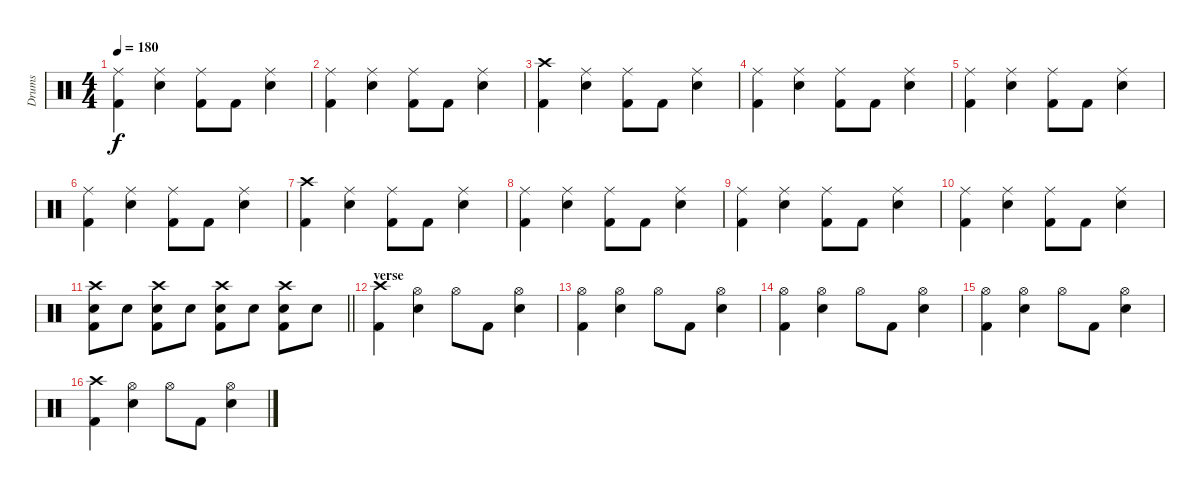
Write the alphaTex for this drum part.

\track ("Drums" "Drums") {instrument percussion}
\staff {score}
\articulation defaults
\ts (4 4)
\tempo 180
\clef neutral
\ks c
("Ride (middle)" "Kick (hit) 2").4{dy f} ("Ride (middle)" "Electric Snare (hit)").4 ("Ride (middle)" "Kick (hit) 2").8 "Kick (hit) 2".8 ("Ride (middle)" "Electric Snare (hit)").4 |
("Ride (middle)" "Kick (hit) 2").4 ("Ride (middle)" "Electric Snare (hit)").4 ("Ride (middle)" "Kick (hit) 2").8 "Kick (hit) 2".8 ("Ride (middle)" "Electric Snare (hit)").4 |
("Crash high (hit)" "Kick (hit) 2").4 ("Ride (middle)" "Electric Snare (hit)").4 ("Ride (middle)" "Kick (hit) 2").8 "Kick (hit) 2".8 ("Ride (middle)" "Electric Snare (hit)").4 |
("Ride (middle)" "Kick (hit) 2").4 ("Ride (middle)" "Electric Snare (hit)").4 ("Ride (middle)" "Kick (hit) 2").8 "Kick (hit) 2".8 ("Ride (middle)" "Electric Snare (hit)").4 |
("Ride (middle)" "Kick (hit) 2").4 ("Ride (middle)" "Electric Snare (hit)").4 ("Ride (middle)" "Kick (hit) 2").8 "Kick (hit) 2".8 ("Ride (middle)" "Electric Snare (hit)").4 |
("Ride (middle)" "Kick (hit) 2").4 ("Ride (middle)" "Electric Snare (hit)").4 ("Ride (middle)" "Kick (hit) 2").8 "Kick (hit) 2".8 ("Ride (middle)" "Electric Snare (hit)").4 |
("Crash high (hit)" "Kick (hit) 2").4 ("Ride (middle)" "Electric Snare (hit)").4 ("Ride (middle)" "Kick (hit) 2").8 "Kick (hit) 2".8 ("Ride (middle)" "Electric Snare (hit)").4 |
("Ride (middle)" "Kick (hit) 2").4 ("Ride (middle)" "Electric Snare (hit)").4 ("Ride (middle)" "Kick (hit) 2").8 "Kick (hit) 2".8 ("Ride (middle)" "Electric Snare (hit)").4 |
("Ride (middle)" "Kick (hit) 2").4 ("Ride (middle)" "Electric Snare (hit)").4 ("Ride (middle)" "Kick (hit) 2").8 "Kick (hit) 2".8 ("Ride (middle)" "Electric Snare (hit)").4 |
("Ride (middle)" "Kick (hit) 2").4 ("Ride (middle)" "Electric Snare (hit)").4 ("Ride (middle)" "Kick (hit) 2").8 "Kick (hit) 2".8 ("Ride (middle)" "Electric Snare (hit)").4 |
\barLineRight lightlight
("Crash high (hit)" "Electric Snare (hit)" "Kick (hit) 2").8 "Electric Snare (hit)".8 ("Crash high (hit)" "Electric Snare (hit)" "Kick (hit) 2").8 "Electric Snare (hit)".8 ("Crash high (hit)" "Electric Snare (hit)" "Kick (hit) 2").8 "Electric Snare (hit)".8 ("Crash high (hit)" "Electric Snare (hit)" "Kick (hit) 2").8 "Electric Snare (hit)".8 |
\section ("" "verse")
("Crash high (hit)" "Kick (hit) 2").4 ("Hi-Hat (open)" "Electric Snare (hit)").4 "Hi-Hat (open)".8 "Kick (hit) 2".8 ("Hi-Hat (open)" "Electric Snare (hit)").4 |
("Hi-Hat (open)" "Kick (hit) 2").4 ("Hi-Hat (open)" "Electric Snare (hit)").4 "Hi-Hat (open)".8 "Kick (hit) 2".8 ("Hi-Hat (open)" "Electric Snare (hit)").4 |
("Hi-Hat (open)" "Kick (hit) 2").4 ("Hi-Hat (open)" "Electric Snare (hit)").4 "Hi-Hat (open)".8 "Kick (hit) 2".8 ("Hi-Hat (open)" "Electric Snare (hit)").4 |
("Hi-Hat (open)" "Kick (hit) 2").4 ("Hi-Hat (open)" "Electric Snare (hit)").4 "Hi-Hat (open)".8 "Kick (hit) 2".8 ("Hi-Hat (open)" "Electric Snare (hit)").4 |
("Crash high (hit)" "Kick (hit) 2").4 ("Hi-Hat (open)" "Electric Snare (hit)").4 "Hi-Hat (open)".8 "Kick (hit) 2".8 ("Hi-Hat (open)" "Electric Snare (hit)").4
